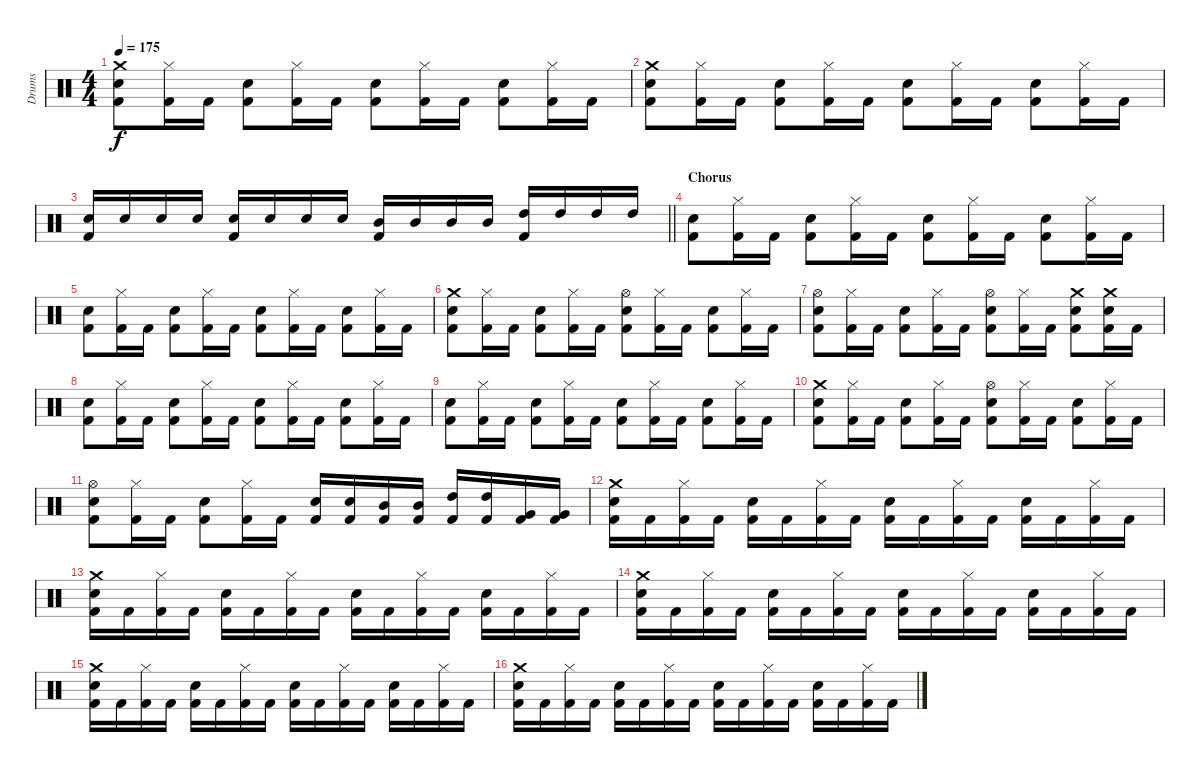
\track ("Drums" "Drums") {instrument percussion}
\staff {score}
\articulation defaults
\ts (4 4)
\tempo 175
\clef neutral
\ks c
("Kick (hit) 2" "Snare (hit) 2" "Crash medium (hit)").8{dy f} ("Kick (hit) 2" "Hi-Hat (closed)").16 "Kick (hit) 2".16 ("Kick (hit) 2" "Snare (hit) 2").8 ("Kick (hit) 2" "Hi-Hat (closed)").16 "Kick (hit) 2".16 ("Kick (hit) 2" "Snare (hit) 2").8 ("Kick (hit) 2" "Hi-Hat (closed)").16 "Kick (hit) 2".16 ("Kick (hit) 2" "Snare (hit) 2").8 ("Kick (hit) 2" "Hi-Hat (closed)").16 "Kick (hit) 2".16 |
("Kick (hit) 2" "Snare (hit) 2" "Crash medium (hit)").8 ("Kick (hit) 2" "Hi-Hat (closed)").16 "Kick (hit) 2".16 ("Kick (hit) 2" "Snare (hit) 2").8 ("Kick (hit) 2" "Hi-Hat (closed)").16 "Kick (hit) 2".16 ("Kick (hit) 2" "Snare (hit) 2").8 ("Kick (hit) 2" "Hi-Hat (closed)").16 "Kick (hit) 2".16 ("Kick (hit) 2" "Snare (hit) 2").8 ("Kick (hit) 2" "Hi-Hat (closed)").16 "Kick (hit) 2".16 |
\barLineRight lightlight
("Kick (hit) 2" "Snare (hit) 2").16 "Snare (hit) 2".16 "Snare (hit) 2".16 "Snare (hit) 2".16 ("Kick (hit) 2" "Electric Snare (hit)").16 "Electric Snare (hit)".16 "Electric Snare (hit)".16 "Electric Snare (hit)".16 ("Kick (hit) 2" "Mid Tom (hit)").16 "Mid Tom (hit)".16 "Mid Tom (hit)".16 "Mid Tom (hit)".16 ("Kick (hit) 2" "High Tom (hit)").16 "High Tom (hit)".16 "High Tom (hit)".16 "High Tom (hit)".16 |
\section ("" "Chorus")
("Kick (hit) 2" "Snare (hit) 2").8 ("Kick (hit) 2" "Hi-Hat (closed)").16 "Kick (hit) 2".16 ("Kick (hit) 2" "Snare (hit) 2").8 ("Kick (hit) 2" "Hi-Hat (closed)").16 "Kick (hit) 2".16 ("Kick (hit) 2" "Snare (hit) 2").8 ("Kick (hit) 2" "Hi-Hat (closed)").16 "Kick (hit) 2".16 ("Kick (hit) 2" "Snare (hit) 2").8 ("Kick (hit) 2" "Hi-Hat (closed)").16 "Kick (hit) 2".16 |
("Kick (hit) 2" "Snare (hit) 2").8 ("Kick (hit) 2" "Hi-Hat (closed)").16 "Kick (hit) 2".16 ("Kick (hit) 2" "Snare (hit) 2").8 ("Kick (hit) 2" "Hi-Hat (closed)").16 "Kick (hit) 2".16 ("Kick (hit) 2" "Snare (hit) 2").8 ("Kick (hit) 2" "Hi-Hat (closed)").16 "Kick (hit) 2".16 ("Kick (hit) 2" "Snare (hit) 2").8 ("Kick (hit) 2" "Hi-Hat (closed)").16 "Kick (hit) 2".16 |
("Kick (hit) 2" "Snare (hit) 2" "Crash medium (hit)").8 ("Kick (hit) 2" "Hi-Hat (closed)").16 "Kick (hit) 2".16 ("Kick (hit) 2" "Snare (hit) 2").8 ("Kick (hit) 2" "Hi-Hat (closed)").16 "Kick (hit) 2".16 ("Kick (hit) 2" "Snare (hit) 2" "Hi-Hat (open)").8 ("Kick (hit) 2" "Hi-Hat (closed)").16 "Kick (hit) 2".16 ("Kick (hit) 2" "Snare (hit) 2").8 ("Kick (hit) 2" "Hi-Hat (closed)").16 "Kick (hit) 2".16 |
("Kick (hit) 2" "Snare (hit) 2" "Hi-Hat (open)").8 ("Kick (hit) 2" "Hi-Hat (closed)").16 "Kick (hit) 2".16 ("Kick (hit) 2" "Snare (hit) 2").8 ("Kick (hit) 2" "Hi-Hat (closed)").16 "Kick (hit) 2".16 ("Kick (hit) 2" "Snare (hit) 2" "Hi-Hat (open)").8 ("Kick (hit) 2" "Hi-Hat (closed)").16 "Kick (hit) 2".16 ("Kick (hit) 2" "Snare (hit) 2" "Crash medium (hit)").8 ("Kick (hit) 2" "Snare (hit) 2" "Crash medium (hit)").16 "Kick (hit) 2".16 |
("Kick (hit) 2" "Snare (hit) 2").8 ("Kick (hit) 2" "Hi-Hat (closed)").16 "Kick (hit) 2".16 ("Kick (hit) 2" "Snare (hit) 2").8 ("Kick (hit) 2" "Hi-Hat (closed)").16 "Kick (hit) 2".16 ("Kick (hit) 2" "Snare (hit) 2").8 ("Kick (hit) 2" "Hi-Hat (closed)").16 "Kick (hit) 2".16 ("Kick (hit) 2" "Snare (hit) 2").8 ("Kick (hit) 2" "Hi-Hat (closed)").16 "Kick (hit) 2".16 |
("Kick (hit) 2" "Snare (hit) 2").8 ("Kick (hit) 2" "Hi-Hat (closed)").16 "Kick (hit) 2".16 ("Kick (hit) 2" "Snare (hit) 2").8 ("Kick (hit) 2" "Hi-Hat (closed)").16 "Kick (hit) 2".16 ("Kick (hit) 2" "Snare (hit) 2").8 ("Kick (hit) 2" "Hi-Hat (closed)").16 "Kick (hit) 2".16 ("Kick (hit) 2" "Snare (hit) 2").8 ("Kick (hit) 2" "Hi-Hat (closed)").16 "Kick (hit) 2".16 |
("Kick (hit) 2" "Snare (hit) 2" "Crash medium (hit)").8 ("Kick (hit) 2" "Hi-Hat (closed)").16 "Kick (hit) 2".16 ("Kick (hit) 2" "Snare (hit) 2").8 ("Kick (hit) 2" "Hi-Hat (closed)").16 "Kick (hit) 2".16 ("Kick (hit) 2" "Snare (hit) 2" "Hi-Hat (open)").8 ("Kick (hit) 2" "Hi-Hat (closed)").16 "Kick (hit) 2".16 ("Kick (hit) 2" "Snare (hit) 2").8 ("Kick (hit) 2" "Hi-Hat (closed)").16 "Kick (hit) 2".16 |
("Kick (hit) 2" "Snare (hit) 2" "Hi-Hat (open)").8 ("Kick (hit) 2" "Hi-Hat (closed)").16 "Kick (hit) 2".16 ("Kick (hit) 2" "Snare (hit) 2").8 ("Kick (hit) 2" "Hi-Hat (closed)").16 "Kick (hit) 2".16 ("Electric Snare (hit)" "Kick (hit) 2").16 ("Electric Snare (hit)" "Kick (hit) 2").16 ("Mid Tom (hit)" "Kick (hit) 2").16 ("Mid Tom (hit)" "Kick (hit) 2").16 ("High Tom (hit)" "Kick (hit) 2").16 ("High Tom (hit)" "Kick (hit) 2").16 ("Very Low Tom (hit)" "Kick (hit) 2").16 ("Very Low Tom (hit)" "Kick (hit) 2").16 |
("Kick (hit) 2" "Snare (hit) 2" "Crash medium (hit)").16 "Kick (hit) 2".16 ("Kick (hit) 2" "Hi-Hat (closed)").16 "Kick (hit) 2".16 ("Kick (hit) 2" "Snare (hit) 2").16 "Kick (hit) 2".16 ("Kick (hit) 2" "Hi-Hat (closed)").16 "Kick (hit) 2".16 ("Kick (hit) 2" "Snare (hit) 2").16 "Kick (hit) 2".16 ("Kick (hit) 2" "Hi-Hat (closed)").16 "Kick (hit) 2".16 ("Kick (hit) 2" "Snare (hit) 2").16 "Kick (hit) 2".16 ("Kick (hit) 2" "Hi-Hat (closed)").16 "Kick (hit) 2".16 |
("Kick (hit) 2" "Snare (hit) 2" "Crash medium (hit)").16 "Kick (hit) 2".16 ("Kick (hit) 2" "Hi-Hat (closed)").16 "Kick (hit) 2".16 ("Kick (hit) 2" "Snare (hit) 2").16 "Kick (hit) 2".16 ("Kick (hit) 2" "Hi-Hat (closed)").16 "Kick (hit) 2".16 ("Kick (hit) 2" "Snare (hit) 2").16 "Kick (hit) 2".16 ("Kick (hit) 2" "Hi-Hat (closed)").16 "Kick (hit) 2".16 ("Kick (hit) 2" "Snare (hit) 2").16 "Kick (hit) 2".16 ("Kick (hit) 2" "Hi-Hat (closed)").16 "Kick (hit) 2".16 |
("Kick (hit) 2" "Snare (hit) 2" "Crash medium (hit)").16 "Kick (hit) 2".16 ("Kick (hit) 2" "Hi-Hat (closed)").16 "Kick (hit) 2".16 ("Kick (hit) 2" "Snare (hit) 2").16 "Kick (hit) 2".16 ("Kick (hit) 2" "Hi-Hat (closed)").16 "Kick (hit) 2".16 ("Kick (hit) 2" "Snare (hit) 2").16 "Kick (hit) 2".16 ("Kick (hit) 2" "Hi-Hat (closed)").16 "Kick (hit) 2".16 ("Kick (hit) 2" "Snare (hit) 2").16 "Kick (hit) 2".16 ("Kick (hit) 2" "Hi-Hat (closed)").16 "Kick (hit) 2".16 |
("Kick (hit) 2" "Snare (hit) 2" "Crash medium (hit)").16 "Kick (hit) 2".16 ("Kick (hit) 2" "Hi-Hat (closed)").16 "Kick (hit) 2".16 ("Kick (hit) 2" "Snare (hit) 2").16 "Kick (hit) 2".16 ("Kick (hit) 2" "Hi-Hat (closed)").16 "Kick (hit) 2".16 ("Kick (hit) 2" "Snare (hit) 2").16 "Kick (hit) 2".16 ("Kick (hit) 2" "Hi-Hat (closed)").16 "Kick (hit) 2".16 ("Kick (hit) 2" "Snare (hit) 2").16 "Kick (hit) 2".16 ("Kick (hit) 2" "Hi-Hat (closed)").16 "Kick (hit) 2".16 |
("Kick (hit) 2" "Snare (hit) 2" "Crash medium (hit)").16 "Kick (hit) 2".16 ("Kick (hit) 2" "Hi-Hat (closed)").16 "Kick (hit) 2".16 ("Kick (hit) 2" "Snare (hit) 2").16 "Kick (hit) 2".16 ("Kick (hit) 2" "Hi-Hat (closed)").16 "Kick (hit) 2".16 ("Kick (hit) 2" "Snare (hit) 2").16 "Kick (hit) 2".16 ("Kick (hit) 2" "Hi-Hat (closed)").16 "Kick (hit) 2".16 ("Kick (hit) 2" "Snare (hit) 2").16 "Kick (hit) 2".16 ("Kick (hit) 2" "Hi-Hat (closed)").16 "Kick (hit) 2".16
